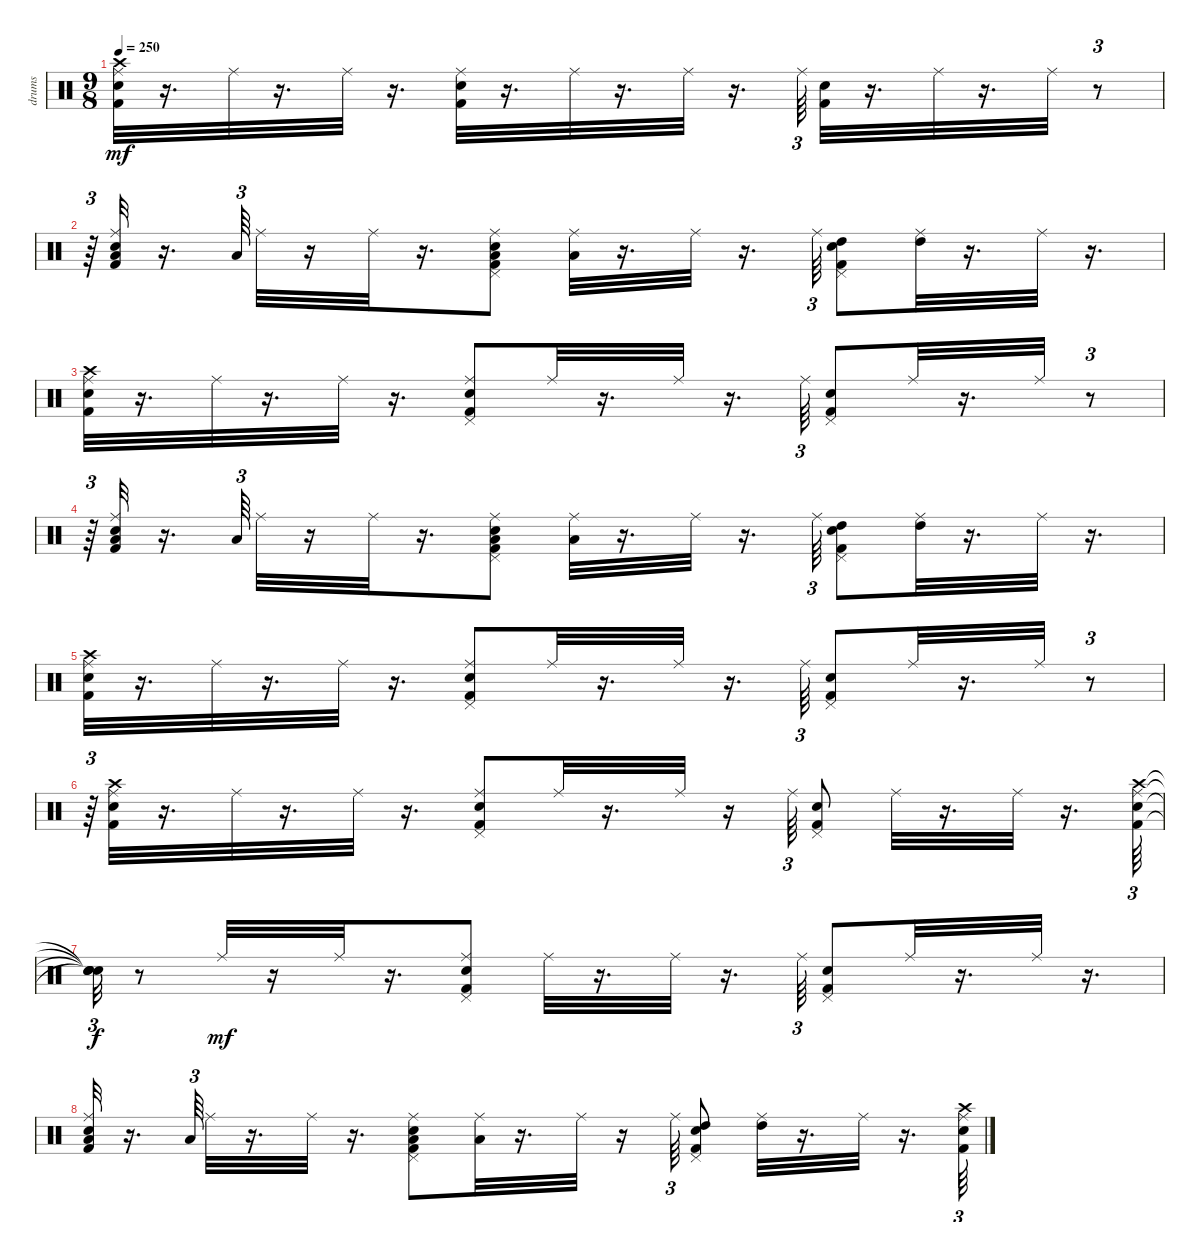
\track ("drums               " "drums     ") {instrument percussion}
\staff {score}
\articulation defaults
\ts (9 8)
\tempo 250
\clef neutral
\ks c
("Kick (hit) 2" "Snare (hit) 2" "Crash high (hit)" "Ride (middle)").32{dy mf} r.16{d} "Ride (middle)".32 r.16{d} "Ride (middle)".32 r.16{d} ("Snare (hit) 2" "Kick (hit) 2" "Ride (middle)").32 r.16{d} "Ride (middle)".32 r.16{d} "Ride (middle)".32 r.16{d} "Ride (middle)".64{tu (3 2)} ("Snare (hit) 2" "Kick (hit) 2").32 r.16{d} "Ride (middle)".32 r.16{d} "Ride (middle)".32 r.8{tu (3 2)} |
r.64{tu (3 2)} ("Kick (hit) 2" "Snare (hit) 2" "Low Floor Tom (hit)" "Ride (middle)").32 r.16{d} "Low Floor Tom (hit)".64{tu (3 2)} "Ride (middle)".32 r.16 "Ride (middle)".32 r.16{d} ("Pedal Hi-Hat (hit)" "Snare (hit) 2" "Kick (hit) 2" "Low Tom (hit)" "Ride (middle)").8 ("Low Tom (hit)" "Ride (middle)").32 r.16{d} "Ride (middle)".32 r.16{d} "Ride (middle)".64{tu (3 2)} ("Snare (hit) 2" "Kick (hit) 2" "Pedal Hi-Hat (hit)" "High Tom (hit)").8 ("High Tom (hit)" "Ride (middle)").32 r.16{d} "Ride (middle)".32 r.16{d} |
("Kick (hit) 2" "Snare (hit) 2" "Crash high (hit)" "Ride (middle)").32 r.16{d} "Ride (middle)".32 r.16{d} "Ride (middle)".32 r.16{d} ("Pedal Hi-Hat (hit)" "Snare (hit) 2" "Kick (hit) 2" "Ride (middle)").8 "Ride (middle)".32 r.16{d} "Ride (middle)".32 r.16{d} "Ride (middle)".64{tu (3 2)} ("Snare (hit) 2" "Kick (hit) 2" "Pedal Hi-Hat (hit)").8 "Ride (middle)".32 r.16{d} "Ride (middle)".32 r.8{tu (3 2)} |
r.64{tu (3 2)} ("Kick (hit) 2" "Snare (hit) 2" "Low Floor Tom (hit)" "Ride (middle)").32 r.16{d} "Low Floor Tom (hit)".64{tu (3 2)} "Ride (middle)".32 r.16 "Ride (middle)".32 r.16{d} ("Pedal Hi-Hat (hit)" "Snare (hit) 2" "Kick (hit) 2" "Low Tom (hit)" "Ride (middle)").8 ("Low Tom (hit)" "Ride (middle)").32 r.16{d} "Ride (middle)".32 r.16{d} "Ride (middle)".64{tu (3 2)} ("Snare (hit) 2" "Kick (hit) 2" "Pedal Hi-Hat (hit)" "High Tom (hit)").8 ("High Tom (hit)" "Ride (middle)").32 r.16{d} "Ride (middle)".32 r.16{d} |
("Kick (hit) 2" "Snare (hit) 2" "Crash high (hit)" "Ride (middle)").32 r.16{d} "Ride (middle)".32 r.16{d} "Ride (middle)".32 r.16{d} ("Pedal Hi-Hat (hit)" "Snare (hit) 2" "Kick (hit) 2" "Ride (middle)").8 "Ride (middle)".32 r.16{d} "Ride (middle)".32 r.16{d} "Ride (middle)".64{tu (3 2)} ("Snare (hit) 2" "Kick (hit) 2" "Pedal Hi-Hat (hit)").8 "Ride (middle)".32 r.16{d} "Ride (middle)".32 r.8{tu (3 2)} |
r.64{tu (3 2)} ("Kick (hit) 2" "Snare (hit) 2" "Crash high (hit)" "Ride (middle)").32 r.16{d} "Ride (middle)".32 r.16{d} "Ride (middle)".32 r.16{d} ("Pedal Hi-Hat (hit)" "Snare (hit) 2" "Kick (hit) 2" "Ride (middle)").8 "Ride (middle)".32 r.16{d} "Ride (middle)".32 r.16 "Ride (middle)".64{tu (3 2)} ("Snare (hit) 2" "Kick (hit) 2" "Pedal Hi-Hat (hit)").8 "Ride (middle)".32 r.16{d} "Ride (middle)".32 r.16{d} ("Kick (hit) 2" "Snare (hit) 2" "Crash high (hit)" "Ride (middle)").64{tu (3 2)} |
("Snare (hit)"{t} "Snare (hit)"{t} "Snare (hit)"{t} "Snare (hit)"{t}).32{tu (3 2) dy f} r.8 "Ride (middle)".32{dy mf} r.16 "Ride (middle)".32 r.16{d} ("Pedal Hi-Hat (hit)" "Snare (hit) 2" "Kick (hit) 2" "Ride (middle)").8 "Ride (middle)".32 r.16{d} "Ride (middle)".32 r.16{d} "Ride (middle)".64{tu (3 2)} ("Snare (hit) 2" "Kick (hit) 2" "Pedal Hi-Hat (hit)").8 "Ride (middle)".32 r.16{d} "Ride (middle)".32 r.16{d} |
("Kick (hit) 2" "Snare (hit) 2" "Low Floor Tom (hit)" "Ride (middle)").32 r.16{d} "Low Floor Tom (hit)".64{tu (3 2)} "Ride (middle)".32 r.16{d} "Ride (middle)".32 r.16{d} ("Pedal Hi-Hat (hit)" "Snare (hit) 2" "Kick (hit) 2" "Low Tom (hit)" "Ride (middle)").8 ("Low Tom (hit)" "Ride (middle)").32 r.16{d} "Ride (middle)".32 r.16 "Ride (middle)".64{tu (3 2)} ("Snare (hit) 2" "Kick (hit) 2" "Pedal Hi-Hat (hit)" "High Tom (hit)").8 ("High Tom (hit)" "Ride (middle)").32 r.16{d} "Ride (middle)".32 r.16{d} ("Kick (hit) 2" "Snare (hit) 2" "Crash high (hit)" "Ride (middle)").64{tu (3 2)}
